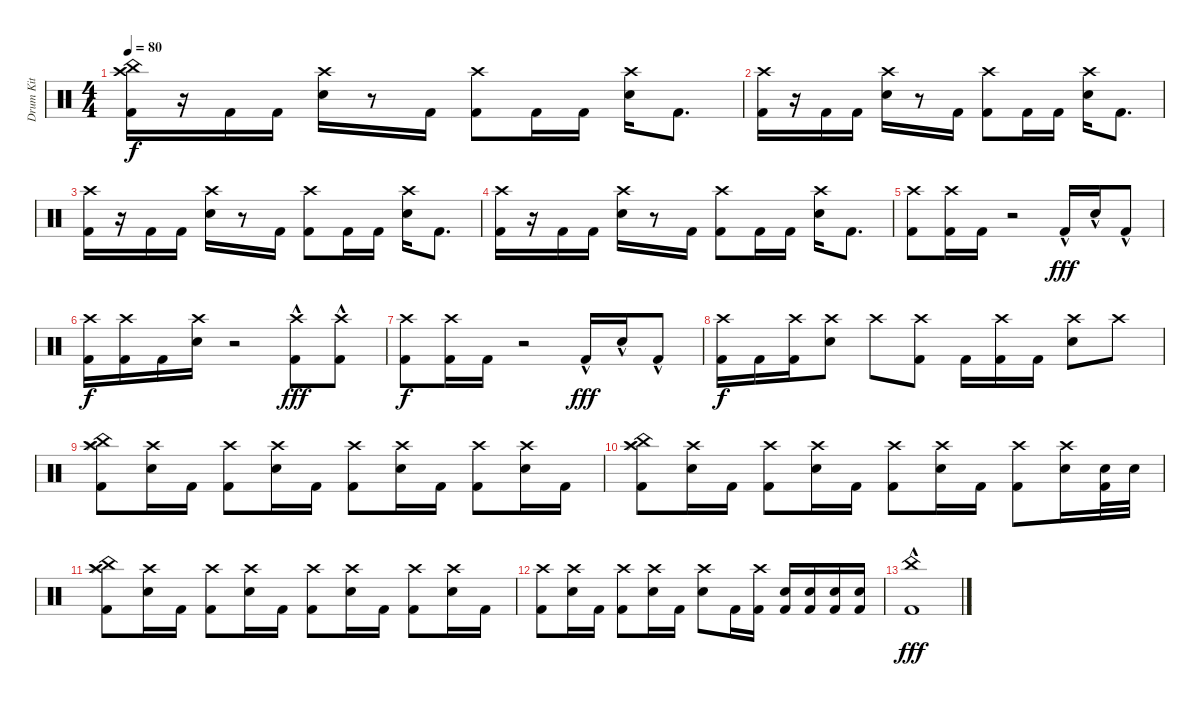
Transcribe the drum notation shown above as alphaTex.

\track ("Drum Kit" "Drum Kit") {instrument percussion}
\staff {score}
\articulation defaults
\ts (4 4)
\tempo 80
\clef neutral
\ks c
("Crash high (hit)" "Kick (hit) 2" "China (hit)").16{dy f} r.16 "Kick (hit) 2".16 "Kick (hit) 2".16 ("Crash high (hit)" "Snare (hit) 2").16 r.8 "Kick (hit) 2".16 ("Kick (hit) 2" "Crash high (hit)").8 "Kick (hit) 2".16 "Kick (hit) 2".16 ("Crash high (hit)" "Snare (hit) 2").16 "Kick (hit) 2".8{d} |
("Crash high (hit)" "Kick (hit) 2").16 r.16 "Kick (hit) 2".16 "Kick (hit) 2".16 ("Crash high (hit)" "Snare (hit) 2").16 r.8 "Kick (hit) 2".16 ("Kick (hit) 2" "Crash high (hit)").8 "Kick (hit) 2".16 "Kick (hit) 2".16 ("Crash high (hit)" "Snare (hit) 2").16 "Kick (hit) 2".8{d} |
("Crash high (hit)" "Kick (hit) 2").16 r.16 "Kick (hit) 2".16 "Kick (hit) 2".16 ("Crash high (hit)" "Snare (hit) 2").16 r.8 "Kick (hit) 2".16 ("Kick (hit) 2" "Crash high (hit)").8 "Kick (hit) 2".16 "Kick (hit) 2".16 ("Crash high (hit)" "Snare (hit) 2").16 "Kick (hit) 2".8{d} |
("Crash high (hit)" "Kick (hit) 2").16 r.16 "Kick (hit) 2".16 "Kick (hit) 2".16 ("Crash high (hit)" "Snare (hit) 2").16 r.8 "Kick (hit) 2".16 ("Kick (hit) 2" "Crash high (hit)").8 "Kick (hit) 2".16 "Kick (hit) 2".16 ("Crash high (hit)" "Snare (hit) 2").16 "Kick (hit) 2".8{d} |
("Crash high (hit)" "Kick (hit) 2").8 ("Crash high (hit)" "Kick (hit) 2").16 "Kick (hit) 2".16 r.2 "Kick (hit) 2"{hac}.16{dy fff} "Snare (hit) 2"{hac}.16 "Kick (hit) 2"{hac}.8 |
("Crash high (hit)" "Kick (hit) 2").16{dy f} ("Crash high (hit)" "Kick (hit) 2").16 "Kick (hit) 2".16 ("Crash high (hit)" "Snare (hit) 2").16 r.2 ("Kick (hit) 2"{hac} "Crash high (hit)"{hac}).8{dy fff} ("Crash high (hit)"{hac} "Kick (hit) 2"{hac}).8 |
("Crash high (hit)" "Kick (hit) 2").8{dy f} ("Crash high (hit)" "Kick (hit) 2").16 "Kick (hit) 2".16 r.2 "Kick (hit) 2"{hac}.16{dy fff} "Snare (hit) 2"{hac}.16 "Kick (hit) 2"{hac}.8 |
("Crash high (hit)" "Kick (hit) 2").16{dy f} "Kick (hit) 2".16 ("Crash high (hit)" "Kick (hit) 2").16 ("Crash high (hit)" "Snare (hit) 2").8 "Crash high (hit)".8 ("Crash high (hit)" "Kick (hit) 2").8 "Kick (hit) 2".16 ("Crash high (hit)" "Kick (hit) 2").16 "Kick (hit) 2".16 ("Crash high (hit)" "Snare (hit) 2").8 "Crash high (hit)".8 |
("China (hit)" "Crash high (hit)" "Splash (hit)" "Kick (hit) 2").8 ("Crash high (hit)" "Snare (hit) 2").16 "Kick (hit) 2".16 ("Crash high (hit)" "Kick (hit) 2").8 ("Crash high (hit)" "Snare (hit) 2").16 "Kick (hit) 2".16 ("Crash high (hit)" "Kick (hit) 2").8 ("Crash high (hit)" "Snare (hit) 2").16 "Kick (hit) 2".16 ("Crash high (hit)" "Kick (hit) 2").8 ("Crash high (hit)" "Snare (hit) 2").16 "Kick (hit) 2".16 |
("China (hit)" "Crash high (hit)" "Splash (hit)" "Kick (hit) 2").8 ("Crash high (hit)" "Snare (hit) 2").16 "Kick (hit) 2".16 ("Crash high (hit)" "Kick (hit) 2").8 ("Crash high (hit)" "Snare (hit) 2").16 "Kick (hit) 2".16 ("Crash high (hit)" "Kick (hit) 2").8 ("Crash high (hit)" "Snare (hit) 2").16 "Kick (hit) 2".16 ("Crash high (hit)" "Kick (hit) 2").8 ("Crash high (hit)" "Snare (hit) 2").16 ("Snare (hit) 2" "Kick (hit) 2").32 "Snare (hit) 2".32 |
("China (hit)" "Crash high (hit)" "Splash (hit)" "Kick (hit) 2").8 ("Crash high (hit)" "Snare (hit) 2").16 "Kick (hit) 2".16 ("Crash high (hit)" "Kick (hit) 2").8 ("Crash high (hit)" "Snare (hit) 2").16 "Kick (hit) 2".16 ("Crash high (hit)" "Kick (hit) 2").8 ("Crash high (hit)" "Snare (hit) 2").16 "Kick (hit) 2".16 ("Crash high (hit)" "Kick (hit) 2").8 ("Crash high (hit)" "Snare (hit) 2").16 "Kick (hit) 2".16 |
("Crash high (hit)" "Kick (hit) 2").8 ("Crash high (hit)" "Snare (hit) 2").16 "Kick (hit) 2".16 ("Crash high (hit)" "Kick (hit) 2").8 ("Crash high (hit)" "Snare (hit) 2").16 "Kick (hit) 2".16 ("Crash high (hit)" "Snare (hit) 2").8 "Kick (hit) 2".16 ("Crash high (hit)" "Kick (hit) 2").16 ("Snare (hit) 2" "Kick (hit) 2").16 ("Snare (hit) 2" "Kick (hit) 2").16 ("Snare (hit) 2" "Kick (hit) 2").16 ("Snare (hit) 2" "Kick (hit) 2").16 |
("China (hit)"{hac} "Kick (hit) 2"{hac}).1{dy fff}
